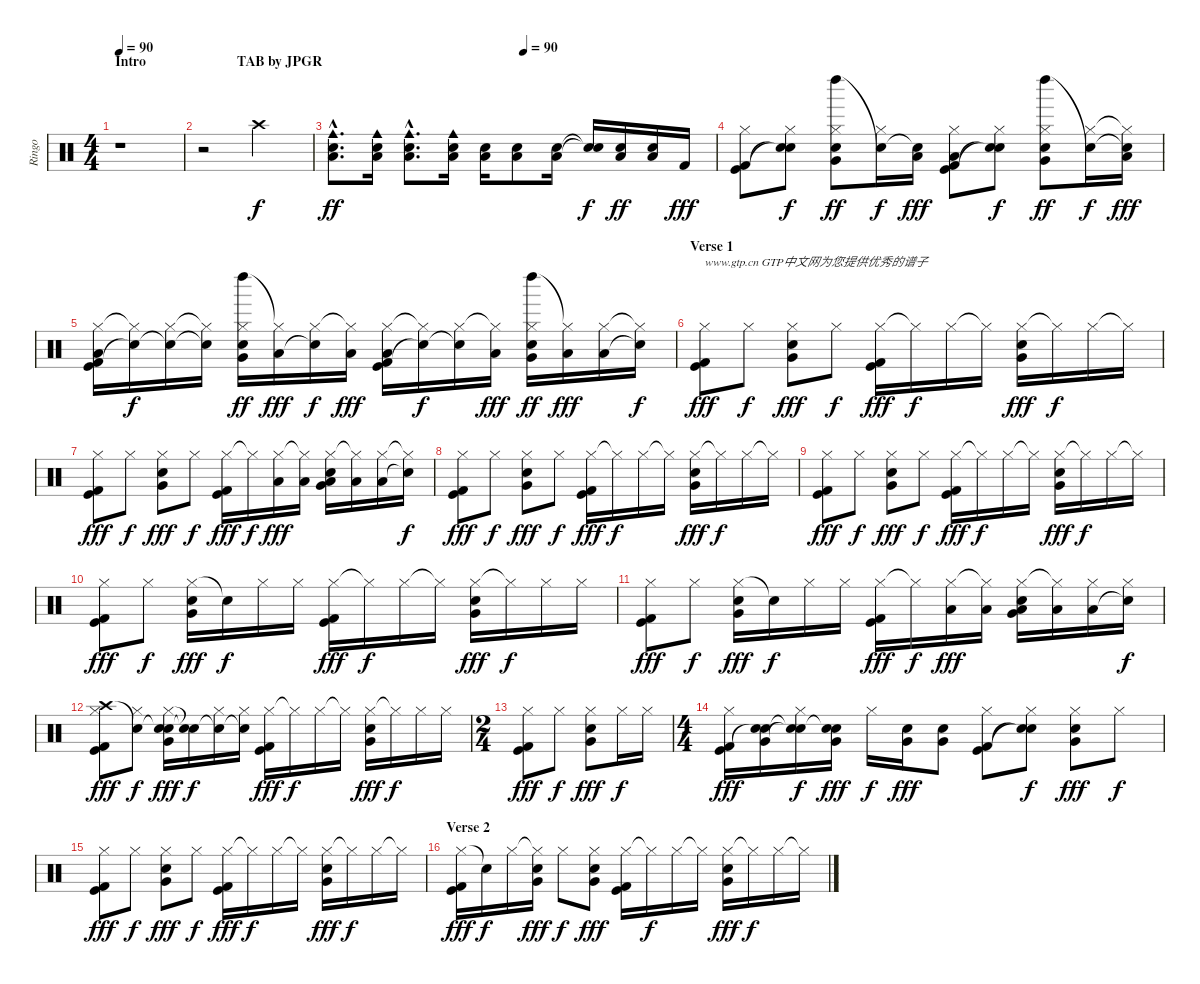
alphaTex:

\track ("Ringo" "Ringo") {instrument percussion}
\staff {score}
\articulation defaults
\ts (4 4)
\section ("" "Intro                          TAB by JPGR")
\tempo 90
\tempo 75
\tempo 90
\clef neutral
\ks c
r.1{dy f} |
r.2 "Crash high (hit)".2 |
\tempo (90 0.5)
("Cowbell medium (hit)"{hac} "Low Floor Tom (hit)"{hac} "Snare (hit) 2"{hac}).8{d dy ff} ("Cowbell medium (hit)" "Low Floor Tom (hit)" "Snare (hit) 2").16 ("Cowbell medium (hit)"{hac} "Low Floor Tom (hit)"{hac} "Snare (hit) 2"{hac}).8{d} ("Cowbell medium (hit)" "Low Floor Tom (hit)" "Snare (hit) 2").16 ("Low Floor Tom (hit)" "Snare (hit) 2").16 ("Low Floor Tom (hit)" "Snare (hit) 2").8 ("Low Floor Tom (hit)" "Snare (hit) 2").16 ("Snare (hit)"{t} "Snare (hit) 2"{t}).16{dy f} ("Low Floor Tom (hit)" "Snare (hit) 2").16{dy ff} ("Low Floor Tom (hit)" "Snare (hit) 2").16 "Kick (hit) 2".16{dy fff} |
("Hi-Hat (closed)" "Kick (hit) 2" "Kick (hit)").8 ("Hi-Hat (closed)" "Snare (hit)"{t} "Snare (hit)"{t}).8{dy f} ("Left Maraca (hit)" "Hi-Hat (closed)" "Electric Snare (hit)" "Very Low Tom (hit)").8{dy ff} ("Snare (hit)"{t} "Hi-Hat (closed)").16{dy f} ("Snare (hit)"{t} "Low Floor Tom (hit)").16{dy fff} ("Hi-Hat (closed)" "Kick (hit) 2" "Kick (hit)" "Low Floor Tom (hit)").8 ("Hi-Hat (closed)" "Snare (hit)"{t} "Snare (hit)"{t}).8{dy f} ("Left Maraca (hit)" "Hi-Hat (closed)" "Electric Snare (hit)" "Very Low Tom (hit)").8{dy ff} ("Snare (hit)"{t} "Hi-Hat (closed)").16{dy f} ("Snare (hit)"{t} "Hi-Hat (closed)"{t} "Low Floor Tom (hit)").16{dy fff} |
("Hi-Hat (closed)" "Kick (hit) 2" "Kick (hit)" "Low Floor Tom (hit)").16 ("Hi-Hat (closed)"{t} "Snare (hit)"{t}).16{dy f} ("Hi-Hat (closed)" "Snare (hit)"{t}).16 ("Hi-Hat (closed)"{t} "Snare (hit)"{t}).16 ("Left Maraca (hit)" "Hi-Hat (closed)" "Electric Snare (hit)" "Very Low Tom (hit)").16{dy ff} ("Hi-Hat (closed)"{t} "Low Floor Tom (hit)").16{dy fff} ("Hi-Hat (closed)" "Snare (hit)"{t}).16{dy f} ("Hi-Hat (closed)"{t} "Low Floor Tom (hit)").16{dy fff} ("Hi-Hat (closed)" "Kick (hit) 2" "Kick (hit)" "Low Floor Tom (hit)").16 ("Hi-Hat (closed)"{t} "Snare (hit)"{t}).16{dy f} ("Hi-Hat (closed)" "Snare (hit)"{t}).16 ("Hi-Hat (closed)"{t} "Low Floor Tom (hit)").16{dy fff} ("Left Maraca (hit)" "Hi-Hat (closed)" "Electric Snare (hit)" "Very Low Tom (hit)").16{dy ff} ("Hi-Hat (closed)"{t} "Low Floor Tom (hit)").16{dy fff} ("Hi-Hat (closed)" "Low Floor Tom (hit)").16 ("Hi-Hat (closed)"{t} "Snare (hit)"{t}).16{dy f} |
\section ("" "Verse 1")
("Hi-Hat (closed)" "Kick (hit) 2" "Kick (hit)").8{txt "www.gtp.cn GTP中文网为您提供优秀的谱子" dy fff} "Hi-Hat (closed)".8{dy f} ("Hi-Hat (closed)" "Snare (hit) 2" "Very Low Tom (hit)").8{dy fff} "Hi-Hat (closed)".8{dy f} ("Hi-Hat (closed)" "Kick (hit) 2" "Kick (hit)").16{dy fff} "Hi-Hat (closed)"{t}.16{dy f} "Hi-Hat (closed)".16 "Hi-Hat (closed)"{t}.16 ("Hi-Hat (closed)" "Snare (hit) 2" "Very Low Tom (hit)").16{dy fff} "Hi-Hat (closed)"{t}.16{dy f} "Hi-Hat (closed)".16 "Hi-Hat (closed)"{t}.16 |
("Hi-Hat (closed)" "Kick (hit) 2" "Kick (hit)").8{dy fff} "Hi-Hat (closed)".8{dy f} ("Hi-Hat (closed)" "Snare (hit) 2" "Very Low Tom (hit)").8{dy fff} "Hi-Hat (closed)".8{dy f} ("Hi-Hat (closed)" "Kick (hit) 2" "Kick (hit)").16{dy fff} "Hi-Hat (closed)"{t}.16{dy f} ("Hi-Hat (closed)" "Low Floor Tom (hit)").16{dy fff} ("Hi-Hat (closed)"{t} "Low Floor Tom (hit)").16 ("Hi-Hat (closed)" "Snare (hit) 2" "Very Low Tom (hit)" "Low Floor Tom (hit)").16 ("Hi-Hat (closed)"{t} "Low Floor Tom (hit)").16 ("Hi-Hat (closed)" "Low Floor Tom (hit)").16 ("Hi-Hat (closed)"{t} "Snare (hit)"{t}).16{dy f} |
("Hi-Hat (closed)" "Kick (hit) 2" "Kick (hit)").8{dy fff} "Hi-Hat (closed)".8{dy f} ("Hi-Hat (closed)" "Snare (hit) 2" "Very Low Tom (hit)").8{dy fff} "Hi-Hat (closed)".8{dy f} ("Hi-Hat (closed)" "Kick (hit) 2" "Kick (hit)").16{dy fff} "Hi-Hat (closed)"{t}.16{dy f} "Hi-Hat (closed)".16 "Hi-Hat (closed)"{t}.16 ("Hi-Hat (closed)" "Snare (hit) 2" "Very Low Tom (hit)").16{dy fff} "Hi-Hat (closed)"{t}.16{dy f} "Hi-Hat (closed)".16 "Hi-Hat (closed)"{t}.16 |
("Hi-Hat (closed)" "Kick (hit) 2" "Kick (hit)").8{dy fff} "Hi-Hat (closed)".8{dy f} ("Hi-Hat (closed)" "Snare (hit) 2" "Very Low Tom (hit)").8{dy fff} "Hi-Hat (closed)".8{dy f} ("Hi-Hat (closed)" "Kick (hit) 2" "Kick (hit)").16{dy fff} "Hi-Hat (closed)"{t}.16{dy f} "Hi-Hat (closed)".16 "Hi-Hat (closed)"{t}.16 ("Hi-Hat (closed)" "Snare (hit) 2" "Very Low Tom (hit)").16{dy fff} "Hi-Hat (closed)"{t}.16{dy f} "Hi-Hat (closed)".16 "Hi-Hat (closed)"{t}.16 |
("Hi-Hat (closed)" "Kick (hit) 2" "Kick (hit)").8{dy fff} "Hi-Hat (closed)".8{dy f} ("Hi-Hat (closed)" "Snare (hit) 2" "Very Low Tom (hit)").16{dy fff} "Snare (hit)"{t}.16{dy f} "Hi-Hat (closed)".16 "Hi-Hat (closed)".16 ("Hi-Hat (closed)" "Kick (hit) 2" "Kick (hit)").16{dy fff} "Hi-Hat (closed)"{t}.16{dy f} "Hi-Hat (closed)".16 "Hi-Hat (closed)"{t}.16 ("Hi-Hat (closed)" "Snare (hit) 2" "Very Low Tom (hit)").16{dy fff} "Hi-Hat (closed)"{t}.16{dy f} "Hi-Hat (closed)".16 "Hi-Hat (closed)".16 |
("Hi-Hat (closed)" "Kick (hit) 2" "Kick (hit)").8{dy fff} "Hi-Hat (closed)".8{dy f} ("Hi-Hat (closed)" "Snare (hit) 2" "Very Low Tom (hit)").16{dy fff} "Snare (hit)"{t}.16{dy f} "Hi-Hat (closed)".16 "Hi-Hat (closed)".16 ("Hi-Hat (closed)" "Kick (hit) 2" "Kick (hit)").16{dy fff} "Hi-Hat (closed)"{t}.16{dy f} ("Hi-Hat (closed)" "Low Floor Tom (hit)").16{dy fff} ("Hi-Hat (closed)"{t} "Low Floor Tom (hit)").16 ("Hi-Hat (closed)" "Snare (hit) 2" "Very Low Tom (hit)" "Low Floor Tom (hit)").16 ("Hi-Hat (closed)"{t} "Low Floor Tom (hit)").16 ("Hi-Hat (closed)" "Low Floor Tom (hit)").16 ("Hi-Hat (closed)" "Snare (hit)"{t}).16{dy f} |
("Crash high (hit)" "Hi-Hat (closed)" "Kick (hit) 2" "Kick (hit)").8{dy fff} ("Snare (hit)"{t} "Hi-Hat (closed)").8{dy f} ("Snare (hit)"{t} "Hi-Hat (closed)" "Snare (hit) 2" "Very Low Tom (hit)").16{dy fff} ("Snare (hit)"{t} "Snare (hit)"{t}).16{dy f} ("Snare (hit)"{t} "Hi-Hat (closed)").16 ("Snare (hit)"{t} "Hi-Hat (closed)").16 ("Hi-Hat (closed)" "Kick (hit) 2" "Kick (hit)").16{dy fff} "Hi-Hat (closed)"{t}.16{dy f} "Hi-Hat (closed)".16 "Hi-Hat (closed)"{t}.16 ("Hi-Hat (closed)" "Snare (hit) 2" "Very Low Tom (hit)").16{dy fff} "Hi-Hat (closed)"{t}.16{dy f} "Hi-Hat (closed)".16 "Hi-Hat (closed)".16 |
\ts (2 4)
("Hi-Hat (closed)" "Kick (hit) 2" "Kick (hit)").8{dy fff} "Hi-Hat (closed)".8{dy f} ("Hi-Hat (closed)" "Snare (hit) 2" "Very Low Tom (hit)").8{dy fff} "Hi-Hat (closed)".16{dy f} "Hi-Hat (closed)".16 |
\ts (4 4)
("Hi-Hat (closed)" "Kick (hit) 2" "Kick (hit)").16{dy fff} ("Snare (hit) 2" "Very Low Tom (hit)" "Snare (hit)"{t}).16 ("Hi-Hat (closed)" "Snare (hit)"{t} "Snare (hit)"{t}).16{dy f} ("Snare (hit) 2" "Very Low Tom (hit)" "Snare (hit)"{t}).16{dy fff} "Hi-Hat (closed)".16{dy f} ("Snare (hit) 2" "Very Low Tom (hit)").16{dy fff} ("Snare (hit) 2" "Very Low Tom (hit)").8 ("Hi-Hat (closed)" "Kick (hit) 2" "Kick (hit)").8 ("Hi-Hat (closed)" "Snare (hit)"{t} "Snare (hit)"{t}).8{dy f} ("Hi-Hat (closed)" "Snare (hit) 2" "Very Low Tom (hit)").8{dy fff} "Hi-Hat (closed)".8{dy f} |
("Hi-Hat (closed)" "Kick (hit) 2" "Kick (hit)").8{dy fff} "Hi-Hat (closed)".8{dy f} ("Hi-Hat (closed)" "Snare (hit) 2" "Very Low Tom (hit)").8{dy fff} "Hi-Hat (closed)".8{dy f} ("Hi-Hat (closed)" "Kick (hit) 2" "Kick (hit)").16{dy fff} "Hi-Hat (closed)"{t}.16{dy f} "Hi-Hat (closed)".16 "Hi-Hat (closed)"{t}.16 ("Hi-Hat (closed)" "Snare (hit) 2" "Very Low Tom (hit)").16{dy fff} "Hi-Hat (closed)"{t}.16{dy f} "Hi-Hat (closed)".16 "Hi-Hat (closed)"{t}.16 |
\section ("" "Verse 2")
("Hi-Hat (closed)" "Kick (hit) 2" "Kick (hit)").16{dy fff} "Snare (hit)"{t}.16{dy f} "Hi-Hat (closed)".16 ("Hi-Hat (closed)"{t} "Snare (hit) 2" "Very Low Tom (hit)").16{dy fff} "Hi-Hat (closed)".8{dy f} ("Hi-Hat (closed)" "Snare (hit) 2" "Very Low Tom (hit)").8{dy fff} ("Hi-Hat (closed)" "Kick (hit) 2" "Kick (hit)").16 "Hi-Hat (closed)"{t}.16{dy f} "Hi-Hat (closed)".16 "Hi-Hat (closed)"{t}.16 ("Hi-Hat (closed)" "Snare (hit) 2" "Very Low Tom (hit)").16{dy fff} "Hi-Hat (closed)"{t}.16{dy f} "Hi-Hat (closed)".16 "Hi-Hat (closed)"{t}.16
